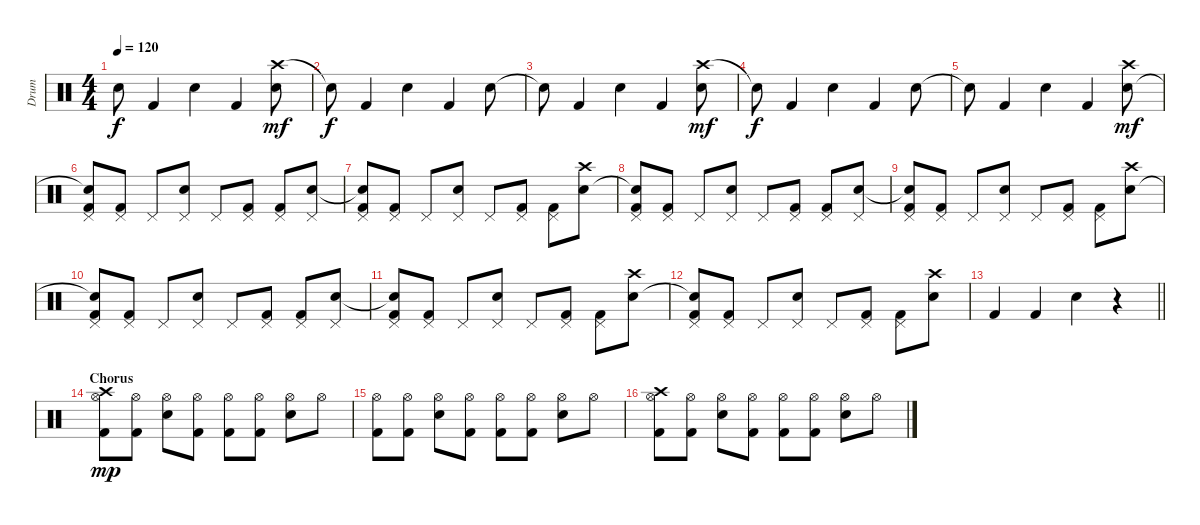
\track ("Drum" "Drum") {instrument percussion}
\staff {score}
\articulation defaults
\ts (4 4)
\tempo 120
\clef neutral
\ks c "Snare (hit)"{t}.8{dy f} "Kick (hit) 2".4 "Snare (hit) 2".4 "Kick (hit) 2".4
("Crash high (hit)" "Snare (hit) 2").8{dy mf} |
"Snare (hit)"{t}.8{dy f} "Kick (hit) 2".4 "Snare (hit) 2".4 "Kick (hit) 2".4 "Snare (hit) 2".8 |
"Snare (hit)"{t}.8 "Kick (hit) 2".4 "Snare (hit) 2".4 "Kick (hit) 2".4 ("Crash high (hit)" "Snare (hit) 2").8{dy mf} |
"Snare (hit)"{t}.8{dy f} "Kick (hit) 2".4 "Snare (hit) 2".4 "Kick (hit) 2".4 "Snare (hit) 2".8 |
"Snare (hit)"{t}.8 "Kick (hit) 2".4 "Snare (hit) 2".4 "Kick (hit) 2".4 ("Crash high (hit)" "Snare (hit) 2").8{dy mf} |
("Pedal Hi-Hat (hit)" "Snare (hit)"{t} "Kick (hit) 2").8 ("Pedal Hi-Hat (hit)" "Kick (hit) 2").8 "Pedal Hi-Hat (hit)".8 ("Pedal Hi-Hat (hit)" "Snare (hit) 2").8 "Pedal Hi-Hat (hit)".8 ("Pedal Hi-Hat (hit)" "Kick (hit) 2").8 ("Pedal Hi-Hat (hit)" "Kick (hit) 2").8 ("Pedal Hi-Hat (hit)" "Snare (hit) 2").8 |
("Pedal Hi-Hat (hit)" "Snare (hit)"{t} "Kick (hit) 2").8 ("Pedal Hi-Hat (hit)" "Kick (hit) 2").8 "Pedal Hi-Hat (hit)".8 ("Pedal Hi-Hat (hit)" "Snare (hit) 2").8 "Pedal Hi-Hat (hit)".8 ("Pedal Hi-Hat (hit)" "Kick (hit) 2").8 ("Pedal Hi-Hat (hit)" "Kick (hit) 2").8 ("Crash high (hit)" "Snare (hit) 2").8 |
("Pedal Hi-Hat (hit)" "Snare (hit)"{t} "Kick (hit) 2").8 ("Pedal Hi-Hat (hit)" "Kick (hit) 2").8 "Pedal Hi-Hat (hit)".8 ("Pedal Hi-Hat (hit)" "Snare (hit) 2").8 "Pedal Hi-Hat (hit)".8 ("Pedal Hi-Hat (hit)" "Kick (hit) 2").8 ("Pedal Hi-Hat (hit)" "Kick (hit) 2").8 ("Pedal Hi-Hat (hit)" "Snare (hit) 2").8 |
("Pedal Hi-Hat (hit)" "Snare (hit)"{t} "Kick (hit) 2").8 ("Pedal Hi-Hat (hit)" "Kick (hit) 2").8 "Pedal Hi-Hat (hit)".8 ("Pedal Hi-Hat (hit)" "Snare (hit) 2").8 "Pedal Hi-Hat (hit)".8 ("Pedal Hi-Hat (hit)" "Kick (hit) 2").8 ("Pedal Hi-Hat (hit)" "Kick (hit) 2").8 ("Crash high (hit)" "Snare (hit) 2").8 |
("Pedal Hi-Hat (hit)" "Snare (hit)"{t} "Kick (hit) 2").8 ("Pedal Hi-Hat (hit)" "Kick (hit) 2").8 "Pedal Hi-Hat (hit)".8 ("Pedal Hi-Hat (hit)" "Snare (hit) 2").8 "Pedal Hi-Hat (hit)".8 ("Pedal Hi-Hat (hit)" "Kick (hit) 2").8 ("Pedal Hi-Hat (hit)" "Kick (hit) 2").8 ("Pedal Hi-Hat (hit)" "Snare (hit) 2").8 |
("Pedal Hi-Hat (hit)" "Snare (hit)"{t} "Kick (hit) 2").8 ("Pedal Hi-Hat (hit)" "Kick (hit) 2").8 "Pedal Hi-Hat (hit)".8 ("Pedal Hi-Hat (hit)" "Snare (hit) 2").8 "Pedal Hi-Hat (hit)".8 ("Pedal Hi-Hat (hit)" "Kick (hit) 2").8 ("Pedal Hi-Hat (hit)" "Kick (hit) 2").8 ("Crash high (hit)" "Snare (hit) 2").8 |
("Pedal Hi-Hat (hit)" "Snare (hit)"{t} "Kick (hit) 2").8 ("Pedal Hi-Hat (hit)" "Kick (hit) 2").8 "Pedal Hi-Hat (hit)".8 ("Pedal Hi-Hat (hit)" "Snare (hit) 2").8 "Pedal Hi-Hat (hit)".8 ("Pedal Hi-Hat (hit)" "Kick (hit) 2").8 ("Pedal Hi-Hat (hit)" "Kick (hit) 2").8 ("Crash high (hit)" "Snare (hit) 2").8 |
\barLineRight lightlight "Kick (hit) 2".4 "Kick (hit) 2".4 "Snare (hit) 2".4
r.4 |
\section ("" "Chorus")
("Hi-Hat (open)" "Crash high (hit)" "Kick (hit) 2").8{dy mp} ("Hi-Hat (open)" "Kick (hit) 2").8 ("Hi-Hat (open)" "Snare (hit) 2").8 ("Hi-Hat (open)" "Kick (hit) 2").8 ("Hi-Hat (open)" "Kick (hit) 2").8 ("Hi-Hat (open)" "Kick (hit) 2").8 ("Hi-Hat (open)" "Snare (hit) 2").8 "Hi-Hat (open)".8 |
("Hi-Hat (open)" "Kick (hit) 2").8 ("Hi-Hat (open)" "Kick (hit) 2").8 ("Hi-Hat (open)" "Snare (hit) 2").8 ("Hi-Hat (open)" "Kick (hit) 2").8 ("Hi-Hat (open)" "Kick (hit) 2").8 ("Hi-Hat (open)" "Kick (hit) 2").8 ("Hi-Hat (open)" "Snare (hit) 2").8 "Hi-Hat (open)".8 |
("Hi-Hat (open)" "Crash high (hit)" "Kick (hit) 2").8 ("Hi-Hat (open)" "Kick (hit) 2").8 ("Hi-Hat (open)" "Snare (hit) 2").8 ("Hi-Hat (open)" "Kick (hit) 2").8 ("Hi-Hat (open)" "Kick (hit) 2").8 ("Hi-Hat (open)" "Kick (hit) 2").8 ("Hi-Hat (open)" "Snare (hit) 2").8 "Hi-Hat (open)".8
